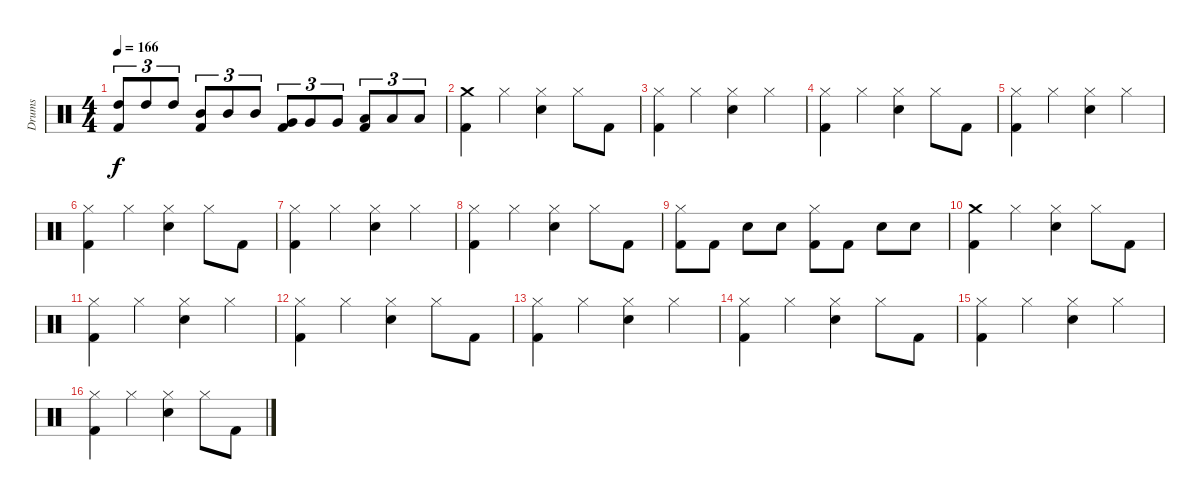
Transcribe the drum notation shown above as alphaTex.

\track ("Drums" "Drums") {instrument percussion}
\staff {score}
\articulation defaults
\ts (4 4)
\tempo 166
\clef neutral
\ks c
("High Tom (hit)" "Kick (hit) 2").8{tu (3 2) dy f} "High Tom (hit)".8{tu (3 2)} "High Tom (hit)".8{tu (3 2)} ("Mid Tom (hit)" "Kick (hit) 2").8{tu (3 2)} "Mid Tom (hit)".8{tu (3 2)} "Mid Tom (hit)".8{tu (3 2)} ("Very Low Tom (hit)" "Kick (hit) 2").8{tu (3 2)} "Very Low Tom (hit)".8{tu (3 2)} "Very Low Tom (hit)".8{tu (3 2)} ("Low Floor Tom (hit)" "Kick (hit) 2").8{tu (3 2)} "Low Floor Tom (hit)".8{tu (3 2)} "Low Floor Tom (hit)".8{tu (3 2)} |
("Crash medium (hit)" "Kick (hit) 2").4 "Hi-Hat (closed)".4 ("Hi-Hat (closed)" "Snare (hit) 2").4 "Hi-Hat (closed)".8 "Kick (hit) 2".8 |
("Hi-Hat (closed)" "Kick (hit) 2").4 "Hi-Hat (closed)".4 ("Hi-Hat (closed)" "Snare (hit) 2").4 "Hi-Hat (closed)".4 |
("Hi-Hat (closed)" "Kick (hit) 2").4 "Hi-Hat (closed)".4 ("Hi-Hat (closed)" "Snare (hit) 2").4 "Hi-Hat (closed)".8 "Kick (hit) 2".8 |
("Hi-Hat (closed)" "Kick (hit) 2").4 "Hi-Hat (closed)".4 ("Hi-Hat (closed)" "Snare (hit) 2").4 "Hi-Hat (closed)".4 |
("Hi-Hat (closed)" "Kick (hit) 2").4 "Hi-Hat (closed)".4 ("Hi-Hat (closed)" "Snare (hit) 2").4 "Hi-Hat (closed)".8 "Kick (hit) 2".8 |
("Hi-Hat (closed)" "Kick (hit) 2").4 "Hi-Hat (closed)".4 ("Hi-Hat (closed)" "Snare (hit) 2").4 "Hi-Hat (closed)".4 |
("Hi-Hat (closed)" "Kick (hit) 2").4 "Hi-Hat (closed)".4 ("Hi-Hat (closed)" "Snare (hit) 2").4 "Hi-Hat (closed)".8 "Kick (hit) 2".8 |
("Hi-Hat (closed)" "Kick (hit) 2").8 "Kick (hit) 2".8 "Snare (hit) 2".8 "Snare (hit) 2".8 ("Hi-Hat (closed)" "Kick (hit) 2").8 "Kick (hit) 2".8 "Snare (hit) 2".8 "Snare (hit) 2".8 |
("Crash medium (hit)" "Kick (hit) 2").4 "Hi-Hat (closed)".4 ("Hi-Hat (closed)" "Snare (hit) 2").4 "Hi-Hat (closed)".8 "Kick (hit) 2".8 |
("Hi-Hat (closed)" "Kick (hit) 2").4 "Hi-Hat (closed)".4 ("Hi-Hat (closed)" "Snare (hit) 2").4 "Hi-Hat (closed)".4 |
("Hi-Hat (closed)" "Kick (hit) 2").4 "Hi-Hat (closed)".4 ("Hi-Hat (closed)" "Snare (hit) 2").4 "Hi-Hat (closed)".8 "Kick (hit) 2".8 |
("Hi-Hat (closed)" "Kick (hit) 2").4 "Hi-Hat (closed)".4 ("Hi-Hat (closed)" "Snare (hit) 2").4 "Hi-Hat (closed)".4 |
("Hi-Hat (closed)" "Kick (hit) 2").4 "Hi-Hat (closed)".4 ("Hi-Hat (closed)" "Snare (hit) 2").4 "Hi-Hat (closed)".8 "Kick (hit) 2".8 |
("Hi-Hat (closed)" "Kick (hit) 2").4 "Hi-Hat (closed)".4 ("Hi-Hat (closed)" "Snare (hit) 2").4 "Hi-Hat (closed)".4 |
("Hi-Hat (closed)" "Kick (hit) 2").4 "Hi-Hat (closed)".4 ("Hi-Hat (closed)" "Snare (hit) 2").4 "Hi-Hat (closed)".8 "Kick (hit) 2".8
